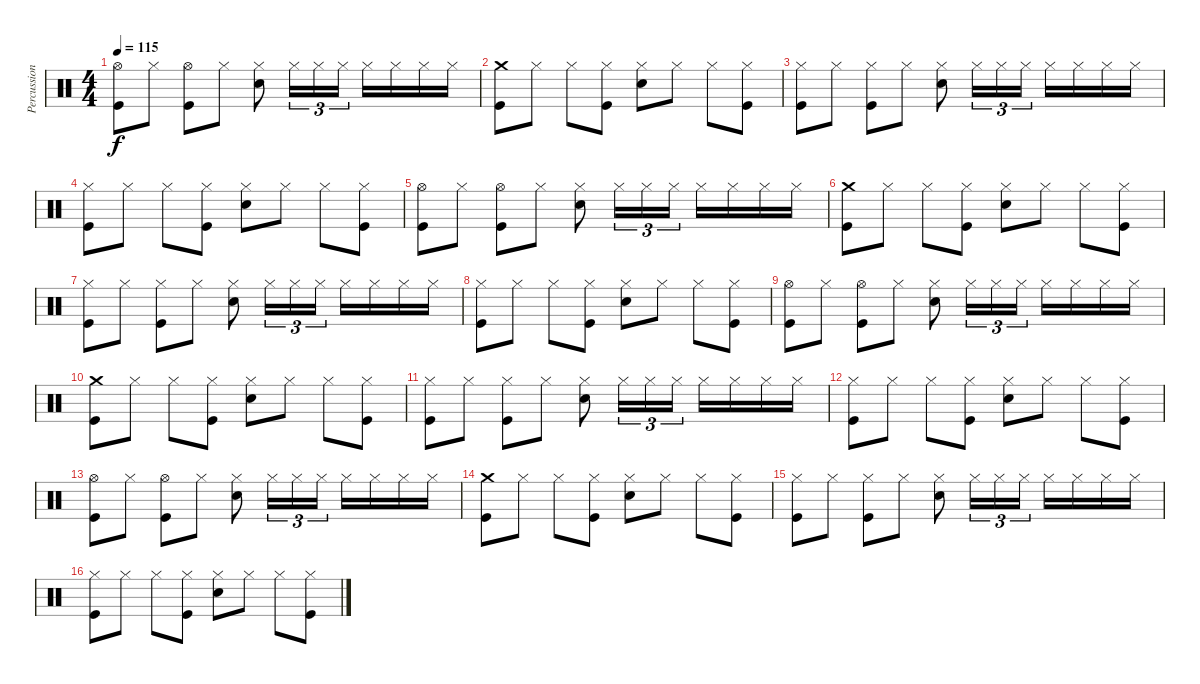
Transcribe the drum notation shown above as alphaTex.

\track ("Percussion" "Percussion") {instrument percussion}
\staff {score}
\articulation defaults
\ts (4 4)
\tempo 115
\clef neutral
\ks c
("Hi-Hat (open)" "Kick (hit)").8{dy f} "Hi-Hat (closed)".8 ("Hi-Hat (open)" "Kick (hit)").8 "Hi-Hat (closed)".8 ("Hi-Hat (closed)" "Snare (hit) 2").8 "Hi-Hat (closed)".16{tu (3 2)} "Hi-Hat (closed)".16{tu (3 2)} "Hi-Hat (closed)".16{tu (3 2)} "Hi-Hat (closed)".16 "Hi-Hat (closed)".16 "Hi-Hat (closed)".16 "Hi-Hat (closed)".16 |
("Crash medium (hit)" "Kick (hit)").8 "Hi-Hat (closed)".8 "Hi-Hat (closed)".8 ("Hi-Hat (closed)" "Kick (hit)").8 ("Hi-Hat (closed)" "Snare (hit) 2").8 "Hi-Hat (closed)".8 "Hi-Hat (closed)".8 ("Hi-Hat (closed)" "Kick (hit)").8 |
("Hi-Hat (closed)" "Kick (hit)").8 "Hi-Hat (closed)".8 ("Hi-Hat (closed)" "Kick (hit)").8 "Hi-Hat (closed)".8 ("Hi-Hat (closed)" "Snare (hit) 2").8 "Hi-Hat (closed)".16{tu (3 2)} "Hi-Hat (closed)".16{tu (3 2)} "Hi-Hat (closed)".16{tu (3 2)} "Hi-Hat (closed)".16 "Hi-Hat (closed)".16 "Hi-Hat (closed)".16 "Hi-Hat (closed)".16 |
("Hi-Hat (closed)" "Kick (hit)").8 "Hi-Hat (closed)".8 "Hi-Hat (closed)".8 ("Hi-Hat (closed)" "Kick (hit)").8 ("Hi-Hat (closed)" "Snare (hit) 2").8 "Hi-Hat (closed)".8 "Hi-Hat (closed)".8 ("Hi-Hat (closed)" "Kick (hit)").8 |
("Hi-Hat (open)" "Kick (hit)").8 "Hi-Hat (closed)".8 ("Hi-Hat (open)" "Kick (hit)").8 "Hi-Hat (closed)".8 ("Hi-Hat (closed)" "Snare (hit) 2").8 "Hi-Hat (closed)".16{tu (3 2)} "Hi-Hat (closed)".16{tu (3 2)} "Hi-Hat (closed)".16{tu (3 2)} "Hi-Hat (closed)".16 "Hi-Hat (closed)".16 "Hi-Hat (closed)".16 "Hi-Hat (closed)".16 |
("Crash medium (hit)" "Kick (hit)").8 "Hi-Hat (closed)".8 "Hi-Hat (closed)".8 ("Hi-Hat (closed)" "Kick (hit)").8 ("Hi-Hat (closed)" "Snare (hit) 2").8 "Hi-Hat (closed)".8 "Hi-Hat (closed)".8 ("Hi-Hat (closed)" "Kick (hit)").8 |
("Hi-Hat (closed)" "Kick (hit)").8 "Hi-Hat (closed)".8 ("Hi-Hat (closed)" "Kick (hit)").8 "Hi-Hat (closed)".8 ("Hi-Hat (closed)" "Snare (hit) 2").8 "Hi-Hat (closed)".16{tu (3 2)} "Hi-Hat (closed)".16{tu (3 2)} "Hi-Hat (closed)".16{tu (3 2)} "Hi-Hat (closed)".16 "Hi-Hat (closed)".16 "Hi-Hat (closed)".16 "Hi-Hat (closed)".16 |
("Hi-Hat (closed)" "Kick (hit)").8 "Hi-Hat (closed)".8 "Hi-Hat (closed)".8 ("Hi-Hat (closed)" "Kick (hit)").8 ("Hi-Hat (closed)" "Snare (hit) 2").8 "Hi-Hat (closed)".8 "Hi-Hat (closed)".8 ("Hi-Hat (closed)" "Kick (hit)").8 |
("Hi-Hat (open)" "Kick (hit)").8 "Hi-Hat (closed)".8 ("Hi-Hat (open)" "Kick (hit)").8 "Hi-Hat (closed)".8 ("Hi-Hat (closed)" "Snare (hit) 2").8 "Hi-Hat (closed)".16{tu (3 2)} "Hi-Hat (closed)".16{tu (3 2)} "Hi-Hat (closed)".16{tu (3 2)} "Hi-Hat (closed)".16 "Hi-Hat (closed)".16 "Hi-Hat (closed)".16 "Hi-Hat (closed)".16 |
("Crash medium (hit)" "Kick (hit)").8 "Hi-Hat (closed)".8 "Hi-Hat (closed)".8 ("Hi-Hat (closed)" "Kick (hit)").8 ("Hi-Hat (closed)" "Snare (hit) 2").8 "Hi-Hat (closed)".8 "Hi-Hat (closed)".8 ("Hi-Hat (closed)" "Kick (hit)").8 |
("Hi-Hat (closed)" "Kick (hit)").8 "Hi-Hat (closed)".8 ("Hi-Hat (closed)" "Kick (hit)").8 "Hi-Hat (closed)".8 ("Hi-Hat (closed)" "Snare (hit) 2").8 "Hi-Hat (closed)".16{tu (3 2)} "Hi-Hat (closed)".16{tu (3 2)} "Hi-Hat (closed)".16{tu (3 2)} "Hi-Hat (closed)".16 "Hi-Hat (closed)".16 "Hi-Hat (closed)".16 "Hi-Hat (closed)".16 |
("Hi-Hat (closed)" "Kick (hit)").8 "Hi-Hat (closed)".8 "Hi-Hat (closed)".8 ("Hi-Hat (closed)" "Kick (hit)").8 ("Hi-Hat (closed)" "Snare (hit) 2").8 "Hi-Hat (closed)".8 "Hi-Hat (closed)".8 ("Hi-Hat (closed)" "Kick (hit)").8 |
("Hi-Hat (open)" "Kick (hit)").8 "Hi-Hat (closed)".8 ("Hi-Hat (open)" "Kick (hit)").8 "Hi-Hat (closed)".8 ("Hi-Hat (closed)" "Snare (hit) 2").8 "Hi-Hat (closed)".16{tu (3 2)} "Hi-Hat (closed)".16{tu (3 2)} "Hi-Hat (closed)".16{tu (3 2)} "Hi-Hat (closed)".16 "Hi-Hat (closed)".16 "Hi-Hat (closed)".16 "Hi-Hat (closed)".16 |
("Crash medium (hit)" "Kick (hit)").8 "Hi-Hat (closed)".8 "Hi-Hat (closed)".8 ("Hi-Hat (closed)" "Kick (hit)").8 ("Hi-Hat (closed)" "Snare (hit) 2").8 "Hi-Hat (closed)".8 "Hi-Hat (closed)".8 ("Hi-Hat (closed)" "Kick (hit)").8 |
("Hi-Hat (closed)" "Kick (hit)").8 "Hi-Hat (closed)".8 ("Hi-Hat (closed)" "Kick (hit)").8 "Hi-Hat (closed)".8 ("Hi-Hat (closed)" "Snare (hit) 2").8 "Hi-Hat (closed)".16{tu (3 2)} "Hi-Hat (closed)".16{tu (3 2)} "Hi-Hat (closed)".16{tu (3 2)} "Hi-Hat (closed)".16 "Hi-Hat (closed)".16 "Hi-Hat (closed)".16 "Hi-Hat (closed)".16 |
("Hi-Hat (closed)" "Kick (hit)").8 "Hi-Hat (closed)".8 "Hi-Hat (closed)".8 ("Hi-Hat (closed)" "Kick (hit)").8 ("Hi-Hat (closed)" "Snare (hit) 2").8 "Hi-Hat (closed)".8 "Hi-Hat (closed)".8 ("Hi-Hat (closed)" "Kick (hit)").8
